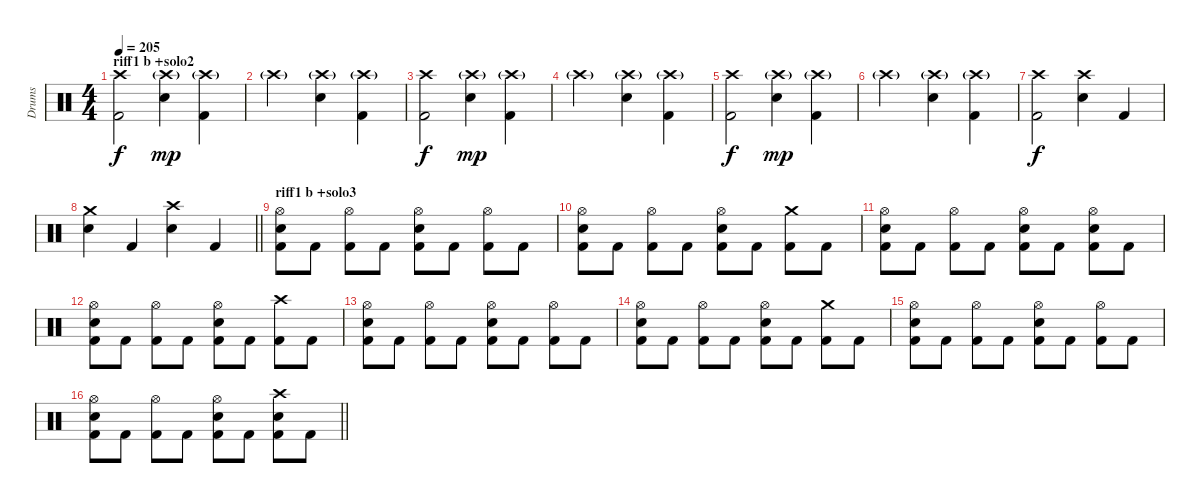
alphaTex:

\track ("Drums" "Drums") {instrument percussion}
\staff {score}
\articulation defaults
\ts (4 4)
\section ("" "riff1 b +solo2")
\tempo 205
\clef neutral
\ks c
("Crash high (hit)" "Kick (hit) 2").2{dy f} ("Crash high (hit)"{g} "Snare (hit) 2").4{dy mp} ("Crash high (hit)"{g} "Kick (hit) 2").4 |
"Crash high (hit)"{g}.2 ("Crash high (hit)"{g} "Snare (hit) 2").4 ("Crash high (hit)"{g} "Kick (hit) 2").4 |
("Crash high (hit)" "Kick (hit) 2").2{dy f} ("Crash high (hit)"{g} "Snare (hit) 2").4{dy mp} ("Crash high (hit)"{g} "Kick (hit) 2").4 |
"Crash high (hit)"{g}.2 ("Crash high (hit)"{g} "Snare (hit) 2").4 ("Crash high (hit)"{g} "Kick (hit) 2").4 |
("Crash high (hit)" "Kick (hit) 2").2{dy f} ("Crash high (hit)"{g} "Snare (hit) 2").4{dy mp} ("Crash high (hit)"{g} "Kick (hit) 2").4 |
"Crash high (hit)"{g}.2 ("Crash high (hit)"{g} "Snare (hit) 2").4 ("Crash high (hit)"{g} "Kick (hit) 2").4 |
("Crash high (hit)" "Kick (hit) 2").2{dy f} ("Crash high (hit)" "Snare (hit) 2").4 "Kick (hit) 2".4 |
\barLineRight lightlight
("Crash medium (hit)" "Snare (hit) 2").4 "Kick (hit) 2".4 ("Crash high (hit)" "Snare (hit) 2").4 "Kick (hit) 2".4 |
\section ("" "riff1 b +solo3")
("Hi-Hat (open)" "Snare (hit) 2" "Kick (hit) 2").8 "Kick (hit) 2".8 ("Hi-Hat (open)" "Kick (hit) 2").8 "Kick (hit) 2".8 ("Hi-Hat (open)" "Snare (hit) 2" "Kick (hit) 2").8 "Kick (hit) 2".8 ("Hi-Hat (open)" "Kick (hit) 2").8 "Kick (hit) 2".8 |
("Hi-Hat (open)" "Snare (hit) 2" "Kick (hit) 2").8 "Kick (hit) 2".8 ("Hi-Hat (open)" "Kick (hit) 2").8 "Kick (hit) 2".8 ("Hi-Hat (open)" "Snare (hit) 2" "Kick (hit) 2").8 "Kick (hit) 2".8 ("Crash medium (hit)" "Kick (hit) 2").8 "Kick (hit) 2".8 |
("Hi-Hat (open)" "Snare (hit) 2" "Kick (hit) 2").8 "Kick (hit) 2".8 ("Hi-Hat (open)" "Kick (hit) 2").8 "Kick (hit) 2".8 ("Hi-Hat (open)" "Snare (hit) 2" "Kick (hit) 2").8 "Kick (hit) 2".8 ("Hi-Hat (open)" "Snare (hit) 2" "Kick (hit) 2").8 "Kick (hit) 2".8 |
("Hi-Hat (open)" "Snare (hit) 2" "Kick (hit) 2").8 "Kick (hit) 2".8 ("Hi-Hat (open)" "Kick (hit) 2").8 "Kick (hit) 2".8 ("Hi-Hat (open)" "Snare (hit) 2" "Kick (hit) 2").8 "Kick (hit) 2".8 ("Crash high (hit)" "Kick (hit) 2").8 "Kick (hit) 2".8 |
("Hi-Hat (open)" "Snare (hit) 2" "Kick (hit) 2").8 "Kick (hit) 2".8 ("Hi-Hat (open)" "Kick (hit) 2").8 "Kick (hit) 2".8 ("Hi-Hat (open)" "Snare (hit) 2" "Kick (hit) 2").8 "Kick (hit) 2".8 ("Hi-Hat (open)" "Kick (hit) 2").8 "Kick (hit) 2".8 |
("Hi-Hat (open)" "Snare (hit) 2" "Kick (hit) 2").8 "Kick (hit) 2".8 ("Hi-Hat (open)" "Kick (hit) 2").8 "Kick (hit) 2".8 ("Hi-Hat (open)" "Snare (hit) 2" "Kick (hit) 2").8 "Kick (hit) 2".8 ("Crash medium (hit)" "Kick (hit) 2").8 "Kick (hit) 2".8 |
("Hi-Hat (open)" "Snare (hit) 2" "Kick (hit) 2").8 "Kick (hit) 2".8 ("Hi-Hat (open)" "Kick (hit) 2").8 "Kick (hit) 2".8 ("Hi-Hat (open)" "Snare (hit) 2" "Kick (hit) 2").8 "Kick (hit) 2".8 ("Hi-Hat (open)" "Kick (hit) 2").8 "Kick (hit) 2".8 |
\barLineRight lightlight
("Hi-Hat (open)" "Snare (hit) 2" "Kick (hit) 2").8 "Kick (hit) 2".8 ("Hi-Hat (open)" "Kick (hit) 2").8 "Kick (hit) 2".8 ("Hi-Hat (open)" "Snare (hit) 2" "Kick (hit) 2").8 "Kick (hit) 2".8 ("Crash high (hit)" "Snare (hit) 2" "Kick (hit) 2").8 "Kick (hit) 2".8
